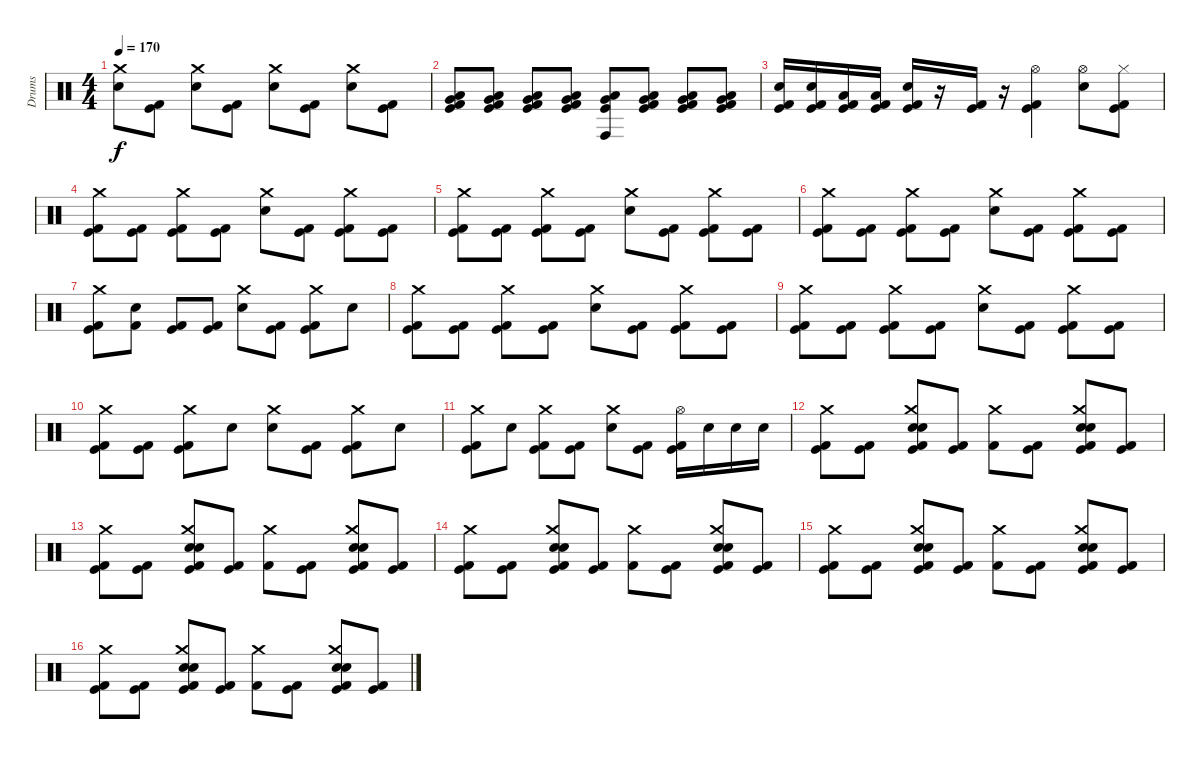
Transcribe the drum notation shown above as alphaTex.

\track ("Drums" "Drums") {instrument percussion}
\staff {score}
\articulation defaults
\ts (4 4)
\tempo 170
\clef neutral
\ks c
("Snare (hit) 2" "Crash medium (hit)").8{dy f} ("Kick (hit) 2" "Kick (hit)").8 ("Snare (hit) 2" "Crash medium (hit)").8 ("Kick (hit) 2" "Kick (hit)").8 ("Snare (hit) 2" "Crash medium (hit)").8 ("Kick (hit) 2" "Kick (hit)").8 ("Snare (hit) 2" "Crash medium (hit)").8 ("Kick (hit) 2" "Kick (hit)").8 |
("Kick (hit) 2" "Very Low Tom (hit)" "Kick (hit)" "Low Tom (hit)").8 ("Kick (hit) 2" "Very Low Tom (hit)" "Kick (hit)" "Low Tom (hit)").8 ("Kick (hit) 2" "Very Low Tom (hit)" "Kick (hit)" "Low Tom (hit)").8 ("Kick (hit) 2" "Very Low Tom (hit)" "Kick (hit)" "Low Tom (hit)").8 ("Conga high (hit)" "Very Low Tom (hit)" "Kick (hit)" "Low Tom (hit)").8 ("Kick (hit) 2" "Very Low Tom (hit)" "Kick (hit)" "Low Tom (hit)").8 ("Kick (hit) 2" "Very Low Tom (hit)" "Kick (hit)" "Low Tom (hit)").8 ("Kick (hit) 2" "Very Low Tom (hit)" "Kick (hit)" "Low Tom (hit)").8 |
("Kick (hit) 2" "Snare (hit) 2" "Kick (hit)").16 ("Kick (hit) 2" "Snare (hit) 2" "Kick (hit)").16 ("Kick (hit) 2" "Low Tom (hit)" "Kick (hit)").16 ("Kick (hit) 2" "Low Tom (hit)" "Kick (hit)").16 ("Kick (hit) 2" "Snare (hit) 2" "Kick (hit)").16 r.16 ("Kick (hit) 2" "Kick (hit)").16 r.16 ("Kick (hit) 2" "Hi-Hat (open)" "Kick (hit)").4 ("Hi-Hat (open)" "Snare (hit) 2").8 ("Kick (hit) 2" "Hi-Hat (closed)" "Kick (hit)").8 |
("Kick (hit) 2" "Kick (hit)" "Crash medium (hit)").8 ("Kick (hit) 2" "Kick (hit)").8 ("Kick (hit) 2" "Kick (hit)" "Crash medium (hit)").8 ("Kick (hit) 2" "Kick (hit)").8 ("Snare (hit) 2" "Crash medium (hit)").8 ("Kick (hit) 2" "Kick (hit)").8 ("Kick (hit) 2" "Kick (hit)" "Crash medium (hit)").8 ("Kick (hit) 2" "Kick (hit)").8 |
("Kick (hit) 2" "Kick (hit)" "Crash medium (hit)").8 ("Kick (hit) 2" "Kick (hit)").8 ("Kick (hit) 2" "Kick (hit)" "Crash medium (hit)").8 ("Kick (hit) 2" "Kick (hit)").8 ("Snare (hit) 2" "Crash medium (hit)").8 ("Kick (hit) 2" "Kick (hit)").8 ("Kick (hit) 2" "Kick (hit)" "Crash medium (hit)").8 ("Kick (hit) 2" "Kick (hit)").8 |
("Kick (hit) 2" "Kick (hit)" "Crash medium (hit)").8 ("Kick (hit) 2" "Kick (hit)").8 ("Kick (hit) 2" "Kick (hit)" "Crash medium (hit)").8 ("Kick (hit) 2" "Kick (hit)").8 ("Snare (hit) 2" "Crash medium (hit)").8 ("Kick (hit) 2" "Kick (hit)").8 ("Kick (hit) 2" "Kick (hit)" "Crash medium (hit)").8 ("Kick (hit) 2" "Kick (hit)").8 |
("Kick (hit) 2" "Kick (hit)" "Crash medium (hit)").8 ("Kick (hit) 2" "Snare (hit) 2").8 ("Kick (hit) 2" "Kick (hit)").8 ("Kick (hit) 2" "Kick (hit)").8 ("Snare (hit) 2" "Crash medium (hit)").8 ("Kick (hit) 2" "Kick (hit)").8 ("Kick (hit) 2" "Kick (hit)" "Crash medium (hit)").8 "Snare (hit) 2".8 |
("Kick (hit) 2" "Kick (hit)" "Crash medium (hit)").8 ("Kick (hit) 2" "Kick (hit)").8 ("Kick (hit) 2" "Kick (hit)" "Crash medium (hit)").8 ("Kick (hit) 2" "Kick (hit)").8 ("Snare (hit) 2" "Crash medium (hit)").8 ("Kick (hit) 2" "Kick (hit)").8 ("Kick (hit) 2" "Kick (hit)" "Crash medium (hit)").8 ("Kick (hit) 2" "Kick (hit)").8 |
("Kick (hit) 2" "Kick (hit)" "Crash medium (hit)").8 ("Kick (hit) 2" "Kick (hit)").8 ("Kick (hit) 2" "Kick (hit)" "Crash medium (hit)").8 ("Kick (hit) 2" "Kick (hit)").8 ("Snare (hit) 2" "Crash medium (hit)").8 ("Kick (hit) 2" "Kick (hit)").8 ("Kick (hit) 2" "Kick (hit)" "Crash medium (hit)").8 ("Kick (hit) 2" "Kick (hit)").8 |
("Kick (hit) 2" "Kick (hit)" "Crash medium (hit)").8 ("Kick (hit) 2" "Kick (hit)").8 ("Kick (hit) 2" "Kick (hit)" "Crash medium (hit)").8 "Snare (hit) 2".8 ("Snare (hit) 2" "Crash medium (hit)").8 ("Kick (hit) 2" "Kick (hit)").8 ("Kick (hit) 2" "Kick (hit)" "Crash medium (hit)").8 "Snare (hit) 2".8 |
("Kick (hit) 2" "Kick (hit)" "Crash medium (hit)").8 "Snare (hit) 2".8 ("Kick (hit) 2" "Kick (hit)" "Crash medium (hit)").8 ("Kick (hit) 2" "Kick (hit)").8 ("Snare (hit) 2" "Crash medium (hit)").8 ("Kick (hit) 2" "Kick (hit)").8 ("Kick (hit) 2" "Kick (hit)" "Hi-Hat (open)").16 "Snare (hit) 2".16 "Snare (hit) 2".16 "Snare (hit) 2".16 |
("Kick (hit) 2" "Kick (hit)" "Crash medium (hit)").8 ("Kick (hit) 2" "Kick (hit)").8 ("Snare (hit) 2" "Electric Snare (hit)" "Kick (hit) 2" "Kick (hit)" "Crash medium (hit)").8 ("Kick (hit) 2" "Kick (hit)").8 ("Kick (hit) 2" "Crash medium (hit)").8 ("Kick (hit) 2" "Kick (hit)").8 ("Snare (hit) 2" "Electric Snare (hit)" "Kick (hit) 2" "Kick (hit)" "Crash medium (hit)").8 ("Kick (hit) 2" "Kick (hit)").8 |
("Kick (hit) 2" "Kick (hit)" "Crash medium (hit)").8 ("Kick (hit) 2" "Kick (hit)").8 ("Snare (hit) 2" "Electric Snare (hit)" "Kick (hit) 2" "Kick (hit)" "Crash medium (hit)").8 ("Kick (hit) 2" "Kick (hit)").8 ("Kick (hit) 2" "Crash medium (hit)").8 ("Kick (hit) 2" "Kick (hit)").8 ("Snare (hit) 2" "Electric Snare (hit)" "Kick (hit) 2" "Kick (hit)" "Crash medium (hit)").8 ("Kick (hit) 2" "Kick (hit)").8 |
("Kick (hit) 2" "Kick (hit)" "Crash medium (hit)").8 ("Kick (hit) 2" "Kick (hit)").8 ("Snare (hit) 2" "Electric Snare (hit)" "Kick (hit) 2" "Kick (hit)" "Crash medium (hit)").8 ("Kick (hit) 2" "Kick (hit)").8 ("Kick (hit) 2" "Crash medium (hit)").8 ("Kick (hit) 2" "Kick (hit)").8 ("Snare (hit) 2" "Electric Snare (hit)" "Kick (hit) 2" "Kick (hit)" "Crash medium (hit)").8 ("Kick (hit) 2" "Kick (hit)").8 |
("Kick (hit) 2" "Kick (hit)" "Crash medium (hit)").8 ("Kick (hit) 2" "Kick (hit)").8 ("Snare (hit) 2" "Electric Snare (hit)" "Kick (hit) 2" "Kick (hit)" "Crash medium (hit)").8 ("Kick (hit) 2" "Kick (hit)").8 ("Kick (hit) 2" "Crash medium (hit)").8 ("Kick (hit) 2" "Kick (hit)").8 ("Snare (hit) 2" "Electric Snare (hit)" "Kick (hit) 2" "Kick (hit)" "Crash medium (hit)").8 ("Kick (hit) 2" "Kick (hit)").8 |
("Kick (hit) 2" "Kick (hit)" "Crash medium (hit)").8 ("Kick (hit) 2" "Kick (hit)").8 ("Snare (hit) 2" "Electric Snare (hit)" "Kick (hit) 2" "Kick (hit)" "Crash medium (hit)").8 ("Kick (hit) 2" "Kick (hit)").8 ("Kick (hit) 2" "Crash medium (hit)").8 ("Kick (hit) 2" "Kick (hit)").8 ("Snare (hit) 2" "Electric Snare (hit)" "Kick (hit) 2" "Kick (hit)" "Crash medium (hit)").8 ("Kick (hit) 2" "Kick (hit)").8
